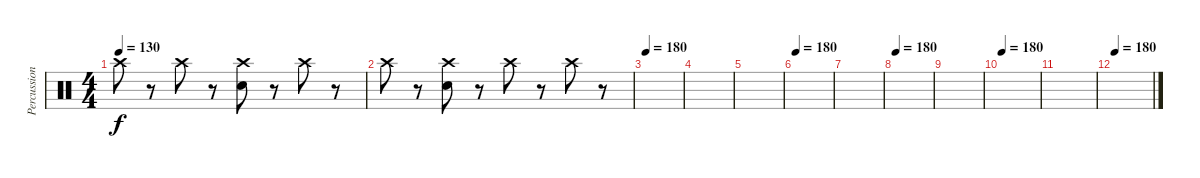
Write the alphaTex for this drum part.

\track ("Percussion" "Percussion") {instrument percussion}
\staff {score}
\articulation defaults
\ts (4 4)
\tempo 130
\clef neutral
\ks c "Crash high (hit)".8{dy f}
r.8 "Crash high (hit)".8 r.8 ("Crash high (hit)" "Electric Snare (hit)").8 r.8 "Crash high (hit)".8 r.8 |
"Crash high (hit)".8 r.8 ("Crash high (hit)" "Electric Snare (hit)").8 r.8 "Crash high (hit)".8 r.8 "Crash high (hit)".8 r.8 |
\tempo 180
|
|
|
\tempo 180
|
|
\tempo 180
|
|
\tempo 180
|
|
\tempo 180
